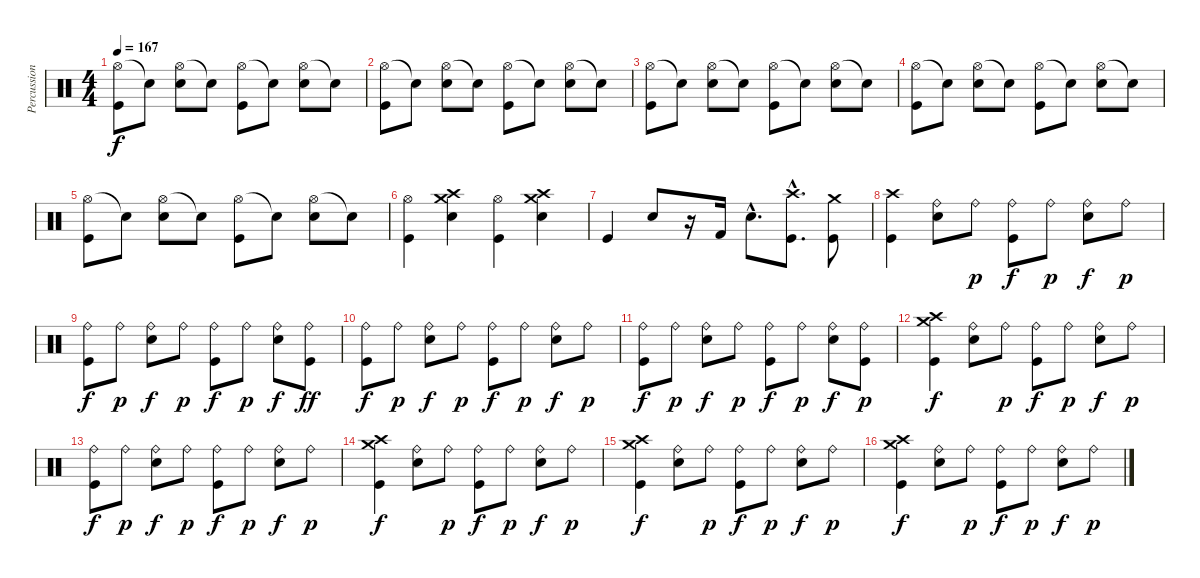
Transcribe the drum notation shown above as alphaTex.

\track ("Percussions" "Percussion") {instrument percussion}
\staff {score}
\articulation defaults
\ts (4 4)
\tempo 167
\clef neutral
\ks c
("Hi-Hat (open)" "Kick (hit)").8{dy f} "Snare (hit)"{t}.8 ("Hi-Hat (open)" "Electric Snare (hit)").8 "Snare (hit)"{t}.8 ("Hi-Hat (open)" "Kick (hit)").8 "Snare (hit)"{t}.8 ("Hi-Hat (open)" "Electric Snare (hit)").8 "Snare (hit)"{t}.8 |
("Hi-Hat (open)" "Kick (hit)").8 "Snare (hit)"{t}.8 ("Hi-Hat (open)" "Electric Snare (hit)").8 "Snare (hit)"{t}.8 ("Hi-Hat (open)" "Kick (hit)").8 "Snare (hit)"{t}.8 ("Hi-Hat (open)" "Electric Snare (hit)").8 "Snare (hit)"{t}.8 |
("Hi-Hat (open)" "Kick (hit)").8 "Snare (hit)"{t}.8 ("Hi-Hat (open)" "Electric Snare (hit)").8 "Snare (hit)"{t}.8 ("Hi-Hat (open)" "Kick (hit)").8 "Snare (hit)"{t}.8 ("Hi-Hat (open)" "Electric Snare (hit)").8 "Snare (hit)"{t}.8 |
("Hi-Hat (open)" "Kick (hit)").8 "Snare (hit)"{t}.8 ("Hi-Hat (open)" "Electric Snare (hit)").8 "Snare (hit)"{t}.8 ("Hi-Hat (open)" "Kick (hit)").8 "Snare (hit)"{t}.8 ("Hi-Hat (open)" "Electric Snare (hit)").8 "Snare (hit)"{t}.8 |
("Hi-Hat (open)" "Kick (hit)").8 "Snare (hit)"{t}.8 ("Hi-Hat (open)" "Electric Snare (hit)").8 "Snare (hit)"{t}.8 ("Hi-Hat (open)" "Kick (hit)").8 "Snare (hit)"{t}.8 ("Hi-Hat (open)" "Electric Snare (hit)").8 "Snare (hit)"{t}.8 |
("Hi-Hat (open)" "Kick (hit)").4 ("Crash medium (hit)" "Crash high (hit)" "Electric Snare (hit)").4 ("Hi-Hat (open)" "Kick (hit)").4 ("Crash medium (hit)" "Crash high (hit)" "Electric Snare (hit)").4 |
"Kick (hit)".4 "Electric Snare (hit)".8 r.16 "Kick (hit) 2".16 "Electric Snare (hit)"{hac}.8{d} ("Crash high (hit)"{hac} "Kick (hit)"{hac}).8{d} ("Crash medium (hit)" "Kick (hit)").8 |
("Crash high (hit)" "Kick (hit)").4 ("Ride (bell)" "Electric Snare (hit)").8 "Ride (bell)".8{dy p} ("Ride (bell)" "Kick (hit)").8{dy f} "Ride (bell)".8{dy p} ("Ride (bell)" "Electric Snare (hit)").8{dy f} "Ride (bell)".8{dy p} |
("Ride (bell)" "Kick (hit)").8{dy f} "Ride (bell)".8{dy p} ("Ride (bell)" "Electric Snare (hit)").8{dy f} "Ride (bell)".8{dy p} ("Ride (bell)" "Kick (hit)").8{dy f} "Ride (bell)".8{dy p} ("Ride (bell)" "Electric Snare (hit)").8{dy f} ("Ride (bell)" "Kick (hit)").8{dy ff} |
("Ride (bell)" "Kick (hit)").8{dy f} "Ride (bell)".8{dy p} ("Ride (bell)" "Electric Snare (hit)").8{dy f} "Ride (bell)".8{dy p} ("Ride (bell)" "Kick (hit)").8{dy f} "Ride (bell)".8{dy p} ("Ride (bell)" "Electric Snare (hit)").8{dy f} "Ride (bell)".8{dy p} |
("Ride (bell)" "Kick (hit)").8{dy f} "Ride (bell)".8{dy p} ("Ride (bell)" "Electric Snare (hit)").8{dy f} "Ride (bell)".8{dy p} ("Ride (bell)" "Kick (hit)").8{dy f} "Ride (bell)".8{dy p} ("Ride (bell)" "Electric Snare (hit)").8{dy f} ("Ride (bell)" "Kick (hit)").8{dy p} |
("Crash medium (hit)" "Crash high (hit)" "Kick (hit)").4{dy f} ("Ride (bell)" "Electric Snare (hit)").8 "Ride (bell)".8{dy p} ("Ride (bell)" "Kick (hit)").8{dy f} "Ride (bell)".8{dy p} ("Ride (bell)" "Electric Snare (hit)").8{dy f} "Ride (bell)".8{dy p} |
("Ride (bell)" "Kick (hit)").8{dy f} "Ride (bell)".8{dy p} ("Ride (bell)" "Electric Snare (hit)").8{dy f} "Ride (bell)".8{dy p} ("Ride (bell)" "Kick (hit)").8{dy f} "Ride (bell)".8{dy p} ("Ride (bell)" "Electric Snare (hit)").8{dy f} "Ride (bell)".8{dy p} |
("Crash medium (hit)" "Crash high (hit)" "Kick (hit)").4{dy f} ("Ride (bell)" "Electric Snare (hit)").8 "Ride (bell)".8{dy p} ("Ride (bell)" "Kick (hit)").8{dy f} "Ride (bell)".8{dy p} ("Ride (bell)" "Electric Snare (hit)").8{dy f} "Ride (bell)".8{dy p} |
("Crash medium (hit)" "Crash high (hit)" "Kick (hit)").4{dy f} ("Ride (bell)" "Electric Snare (hit)").8 "Ride (bell)".8{dy p} ("Ride (bell)" "Kick (hit)").8{dy f} "Ride (bell)".8{dy p} ("Ride (bell)" "Electric Snare (hit)").8{dy f} "Ride (bell)".8{dy p} |
("Crash medium (hit)" "Crash high (hit)" "Kick (hit)").4{dy f} ("Ride (bell)" "Electric Snare (hit)").8 "Ride (bell)".8{dy p} ("Ride (bell)" "Kick (hit)").8{dy f} "Ride (bell)".8{dy p} ("Ride (bell)" "Electric Snare (hit)").8{dy f} "Ride (bell)".8{dy p}
